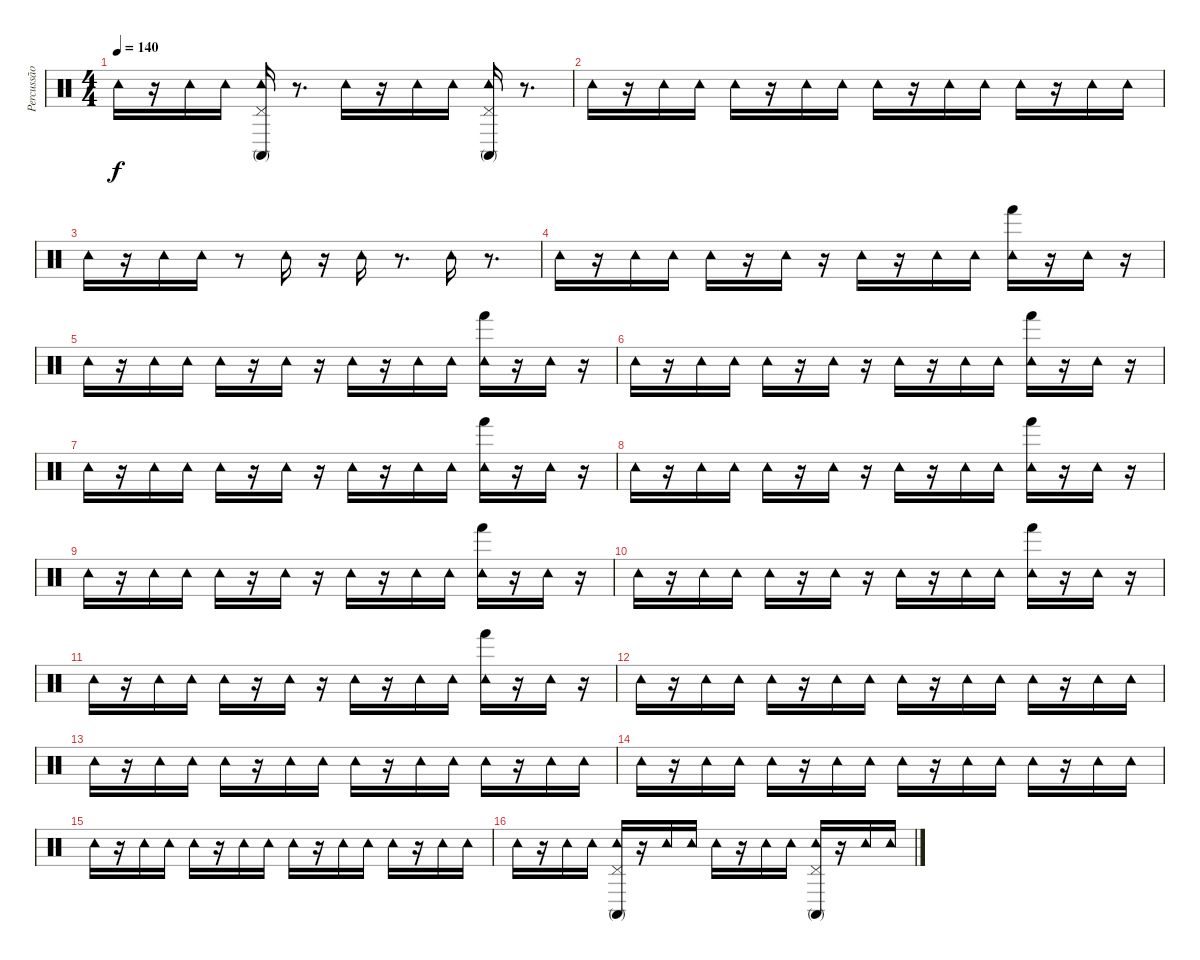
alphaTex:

\track ("Percussão" "Percussão") {instrument percussion}
\staff {score}
\articulation defaults
\ts (4 4)
\tempo 140
\clef neutral
\ks c "Tambourine (hit)".16{dy f}
r.16 "Tambourine (hit)".16 "Tambourine (hit)".16 ("Conga high (mute)" "Pedal Hi-Hat (hit)" "Tambourine (hit)").16 r.8{d} "Tambourine (hit)".16 r.16 "Tambourine (hit)".16 "Tambourine (hit)".16 ("Conga high (mute)" "Pedal Hi-Hat (hit)" "Tambourine (hit)").16 r.8{d} |
"Tambourine (hit)".16 r.16 "Tambourine (hit)".16 "Tambourine (hit)".16 "Tambourine (hit)".16 r.16 "Tambourine (hit)".16 "Tambourine (hit)".16 "Tambourine (hit)".16 r.16 "Tambourine (hit)".16 "Tambourine (hit)".16 "Tambourine (hit)".16 r.16 "Tambourine (hit)".16 "Tambourine (hit)".16 |
"Tambourine (hit)".16 r.16 "Tambourine (hit)".16 "Tambourine (hit)".16 r.8 "Tambourine (hit)".16 r.16 "Tambourine (hit)".16 r.8{d} "Tambourine (hit)".16 r.8{d} |
"Tambourine (hit)".16 r.16 "Tambourine (hit)".16 "Tambourine (hit)".16 "Tambourine (hit)".16 r.16 "Tambourine (hit)".16 r.16 "Tambourine (hit)".16 r.16 "Tambourine (hit)".16 "Tambourine (hit)".16 ("Tambourine (hit)" "Hand (hit)").16 r.16 "Tambourine (hit)".16 r.16 |
"Tambourine (hit)".16 r.16 "Tambourine (hit)".16 "Tambourine (hit)".16 "Tambourine (hit)".16 r.16 "Tambourine (hit)".16 r.16 "Tambourine (hit)".16 r.16 "Tambourine (hit)".16 "Tambourine (hit)".16 ("Tambourine (hit)" "Hand (hit)").16 r.16 "Tambourine (hit)".16 r.16 |
"Tambourine (hit)".16 r.16 "Tambourine (hit)".16 "Tambourine (hit)".16 "Tambourine (hit)".16 r.16 "Tambourine (hit)".16 r.16 "Tambourine (hit)".16 r.16 "Tambourine (hit)".16 "Tambourine (hit)".16 ("Tambourine (hit)" "Hand (hit)").16 r.16 "Tambourine (hit)".16 r.16 |
"Tambourine (hit)".16 r.16 "Tambourine (hit)".16 "Tambourine (hit)".16 "Tambourine (hit)".16 r.16 "Tambourine (hit)".16 r.16 "Tambourine (hit)".16 r.16 "Tambourine (hit)".16 "Tambourine (hit)".16 ("Tambourine (hit)" "Hand (hit)").16 r.16 "Tambourine (hit)".16 r.16 |
"Tambourine (hit)".16 r.16 "Tambourine (hit)".16 "Tambourine (hit)".16 "Tambourine (hit)".16 r.16 "Tambourine (hit)".16 r.16 "Tambourine (hit)".16 r.16 "Tambourine (hit)".16 "Tambourine (hit)".16 ("Tambourine (hit)" "Hand (hit)").16 r.16 "Tambourine (hit)".16 r.16 |
"Tambourine (hit)".16 r.16 "Tambourine (hit)".16 "Tambourine (hit)".16 "Tambourine (hit)".16 r.16 "Tambourine (hit)".16 r.16 "Tambourine (hit)".16 r.16 "Tambourine (hit)".16 "Tambourine (hit)".16 ("Tambourine (hit)" "Hand (hit)").16 r.16 "Tambourine (hit)".16 r.16 |
"Tambourine (hit)".16 r.16 "Tambourine (hit)".16 "Tambourine (hit)".16 "Tambourine (hit)".16 r.16 "Tambourine (hit)".16 r.16 "Tambourine (hit)".16 r.16 "Tambourine (hit)".16 "Tambourine (hit)".16 ("Tambourine (hit)" "Hand (hit)").16 r.16 "Tambourine (hit)".16 r.16 |
"Tambourine (hit)".16 r.16 "Tambourine (hit)".16 "Tambourine (hit)".16 "Tambourine (hit)".16 r.16 "Tambourine (hit)".16 r.16 "Tambourine (hit)".16 r.16 "Tambourine (hit)".16 "Tambourine (hit)".16 ("Tambourine (hit)" "Hand (hit)").16 r.16 "Tambourine (hit)".16 r.16 |
"Tambourine (hit)".16 r.16 "Tambourine (hit)".16 "Tambourine (hit)".16 "Tambourine (hit)".16 r.16 "Tambourine (hit)".16 "Tambourine (hit)".16 "Tambourine (hit)".16 r.16 "Tambourine (hit)".16 "Tambourine (hit)".16 "Tambourine (hit)".16 r.16 "Tambourine (hit)".16 "Tambourine (hit)".16 |
"Tambourine (hit)".16 r.16 "Tambourine (hit)".16 "Tambourine (hit)".16 "Tambourine (hit)".16 r.16 "Tambourine (hit)".16 "Tambourine (hit)".16 "Tambourine (hit)".16 r.16 "Tambourine (hit)".16 "Tambourine (hit)".16 "Tambourine (hit)".16 r.16 "Tambourine (hit)".16 "Tambourine (hit)".16 |
"Tambourine (hit)".16 r.16 "Tambourine (hit)".16 "Tambourine (hit)".16 "Tambourine (hit)".16 r.16 "Tambourine (hit)".16 "Tambourine (hit)".16 "Tambourine (hit)".16 r.16 "Tambourine (hit)".16 "Tambourine (hit)".16 "Tambourine (hit)".16 r.16 "Tambourine (hit)".16 "Tambourine (hit)".16 |
"Tambourine (hit)".16 r.16 "Tambourine (hit)".16 "Tambourine (hit)".16 "Tambourine (hit)".16 r.16 "Tambourine (hit)".16 "Tambourine (hit)".16 "Tambourine (hit)".16 r.16 "Tambourine (hit)".16 "Tambourine (hit)".16 "Tambourine (hit)".16 r.16 "Tambourine (hit)".16 "Tambourine (hit)".16 |
"Tambourine (hit)".16 r.16 "Tambourine (hit)".16 "Tambourine (hit)".16 ("Tambourine (hit)" "Pedal Hi-Hat (hit)" "Conga high (mute)").16 r.16 "Tambourine (hit)".16 "Tambourine (hit)".16 "Tambourine (hit)".16 r.16 "Tambourine (hit)".16 "Tambourine (hit)".16 ("Tambourine (hit)" "Pedal Hi-Hat (hit)" "Conga high (mute)").16 r.16 "Tambourine (hit)".16 "Tambourine (hit)".16
